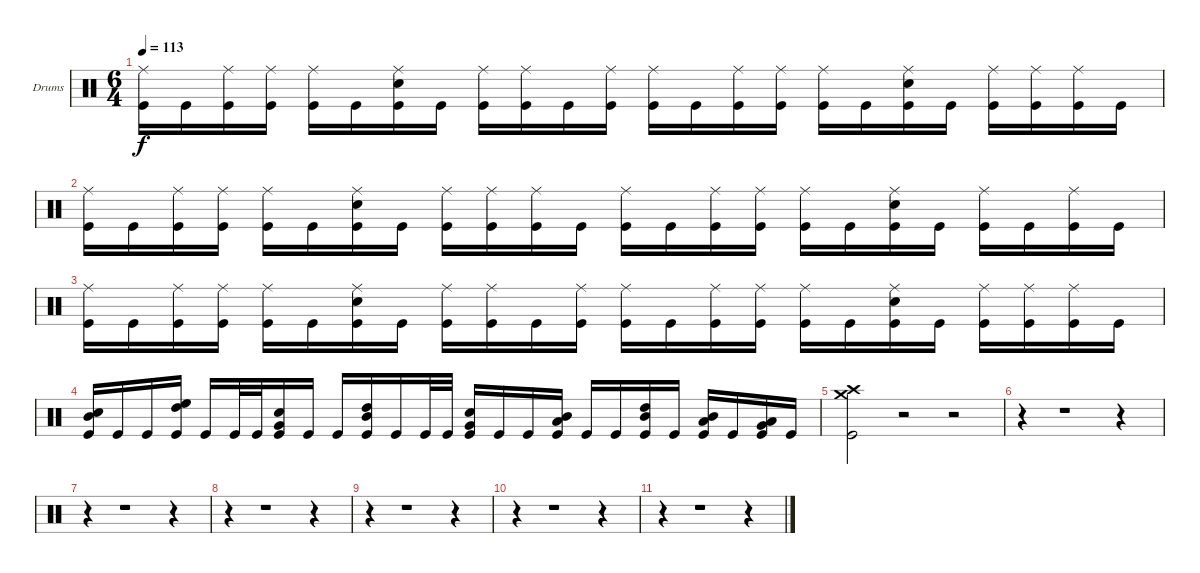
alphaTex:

\bracketExtendMode groupsimilarinstruments
\firstSystemTrackNameOrientation horizontal
\otherSystemsTrackNameOrientation horizontal
\track ("Drumkit" "Drums") {instrument percussion}
\staff {score}
\articulation defaults
\ts (6 4)
\tempo 113
\clef neutral
\ks c
("Ride (middle)" "Kick (hit)").16{dy f} "Kick (hit)".16 ("Ride (middle)" "Kick (hit)").16 ("Ride (middle)" "Kick (hit)").16 ("Ride (middle)" "Kick (hit)").16 "Kick (hit)".16 ("Ride (middle)" "Snare (hit) 2" "Kick (hit)").16 "Kick (hit)".16 ("Ride (middle)" "Kick (hit)").16 ("Ride (middle)" "Kick (hit)").16 "Kick (hit)".16 ("Ride (middle)" "Kick (hit)").16 ("Ride (middle)" "Kick (hit)").16 "Kick (hit)".16 ("Ride (middle)" "Kick (hit)").16 ("Ride (middle)" "Kick (hit)").16 ("Ride (middle)" "Kick (hit)").16 "Kick (hit)".16 ("Ride (middle)" "Snare (hit) 2" "Kick (hit)").16 "Kick (hit)".16 ("Ride (middle)" "Kick (hit)").16 ("Ride (middle)" "Kick (hit)").16 ("Ride (middle)" "Kick (hit)").16 "Kick (hit)".16 |
("Ride (middle)" "Kick (hit)").16 "Kick (hit)".16 ("Ride (middle)" "Kick (hit)").16 ("Ride (middle)" "Kick (hit)").16 ("Ride (middle)" "Kick (hit)").16 "Kick (hit)".16 ("Ride (middle)" "Snare (hit) 2" "Kick (hit)").16 "Kick (hit)".16 ("Ride (middle)" "Kick (hit)").16 ("Ride (middle)" "Kick (hit)").16 ("Ride (middle)" "Kick (hit)").16 "Kick (hit)".16 ("Ride (middle)" "Kick (hit)").16 "Kick (hit)".16 ("Ride (middle)" "Kick (hit)").16 ("Ride (middle)" "Kick (hit)").16 ("Ride (middle)" "Kick (hit)").16 "Kick (hit)".16 ("Ride (middle)" "Snare (hit) 2" "Kick (hit)").16 "Kick (hit)".16 ("Ride (middle)" "Kick (hit)").16 "Kick (hit)".16 ("Ride (middle)" "Kick (hit)").16 "Kick (hit)".16 |
("Ride (middle)" "Kick (hit)").16 "Kick (hit)".16 ("Ride (middle)" "Kick (hit)").16 ("Ride (middle)" "Kick (hit)").16 ("Ride (middle)" "Kick (hit)").16 "Kick (hit)".16 ("Ride (middle)" "Snare (hit) 2" "Kick (hit)").16 "Kick (hit)".16 ("Ride (middle)" "Kick (hit)").16 ("Ride (middle)" "Kick (hit)").16 "Kick (hit)".16 ("Ride (middle)" "Kick (hit)").16 ("Ride (middle)" "Kick (hit)").16 "Kick (hit)".16 ("Ride (middle)" "Kick (hit)").16 ("Ride (middle)" "Kick (hit)").16 ("Ride (middle)" "Kick (hit)").16 "Kick (hit)".16 ("Ride (middle)" "Snare (hit) 2" "Kick (hit)").16 "Kick (hit)".16 ("Ride (middle)" "Kick (hit)").16 ("Ride (middle)" "Kick (hit)").16 ("Ride (middle)" "Kick (hit)").16 "Kick (hit)".16 |
("Snare (hit) 2" "Mid Tom (hit)" "Kick (hit)").16 "Kick (hit)".16 "Kick (hit)".16 ("High Floor Tom (hit)" "High Tom (hit)" "Kick (hit)").16 "Kick (hit)".16 "Kick (hit)".32 "Kick (hit)".32 ("Snare (hit) 2" "Very Low Tom (hit)" "Kick (hit)").16 "Kick (hit)".16 "Kick (hit)".16 ("High Tom (hit)" "Mid Tom (hit)" "Kick (hit)").16 "Kick (hit)".16 "Kick (hit)".32 "Kick (hit)".32 ("Snare (hit) 2" "Very Low Tom (hit)" "Kick (hit)").16 "Kick (hit)".16 "Kick (hit)".16 ("Mid Tom (hit)" "Low Tom (hit)" "Kick (hit)").16 "Kick (hit)".16 "Kick (hit)".16 ("High Tom (hit)" "Mid Tom (hit)" "Kick (hit)").16 "Kick (hit)".16 ("Mid Tom (hit)" "Low Tom (hit)" "Kick (hit)").16 "Kick (hit)".16 ("Low Tom (hit)" "Very Low Tom (hit)" "Kick (hit)").16 "Kick (hit)".16 |
("Crash high (hit)" "Crash medium (hit)" "Kick (hit)").2 r.2 r.2 |
r.4 r.1 r.4 |
r.4 r.1 r.4 |
r.4 r.1 r.4 |
r.4 r.1 r.4 |
r.4 r.1 r.4 |
r.4 r.1 r.4
